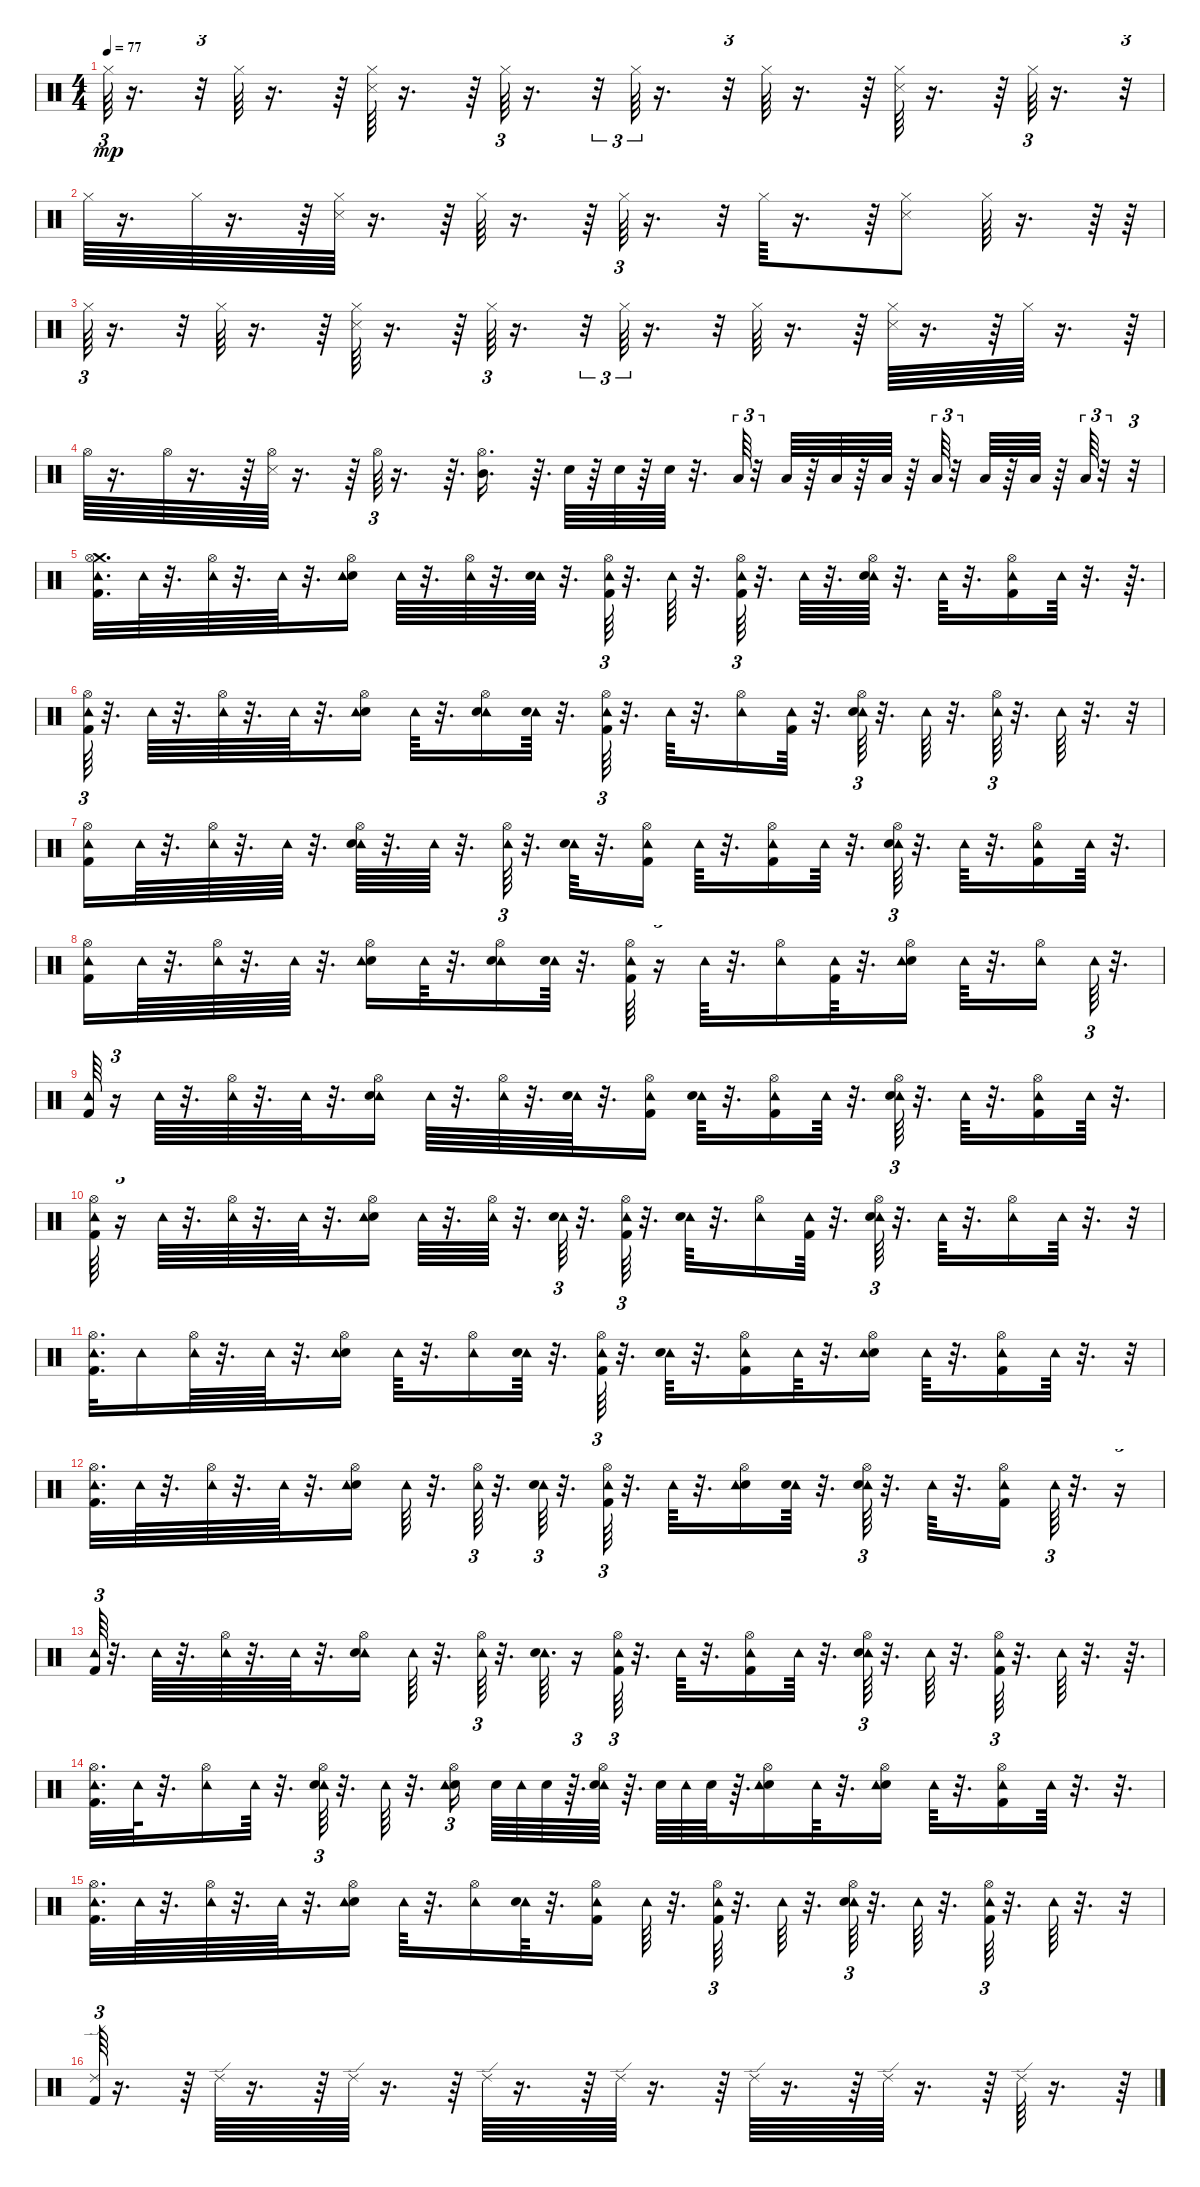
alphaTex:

\track "" {instrument percussion}
\staff {score}
\articulation defaults
\ts (4 4)
\tempo 77
\clef neutral
\ks c "Hi-Hat (closed)".64{tu (3 2) dy mp}
r.16{d} r.32{tu (3 2)} "Hi-Hat (closed)".64 r.16{d} r.64 ("Hi-Hat (closed)" "Snare (side stick) 3").64 r.16{d} r.64 "Hi-Hat (closed)".64{tu (3 2)} r.16{d} r.32{tu (3 2)} "Hi-Hat (closed)".64{tu (3 2)} r.16{d} r.32{tu (3 2)} "Hi-Hat (closed)".64 r.16{d} r.64 ("Hi-Hat (closed)" "Snare (side stick) 3").64 r.16{d} r.64 "Hi-Hat (closed)".64{tu (3 2)} r.16{d} r.32{tu (3 2)} |
"Hi-Hat (closed)".64 r.16{d} "Hi-Hat (closed)".64 r.16{d} r.64 ("Hi-Hat (closed)" "Snare (side stick) 3").64 r.16{d} r.64 "Hi-Hat (closed)".64 r.16{d} r.64 "Hi-Hat (closed)".64{tu (3 2)} r.16{d} r.32{tu (3 2)} "Hi-Hat (closed)".64 r.16{d} r.64 ("Snare (side stick) 3" "Hi-Hat (closed)").8 "Hi-Hat (closed)".64 r.16{d} r.64 r.64 |
"Hi-Hat (closed)".64{tu (3 2)} r.16{d} r.32{tu (3 2)} "Hi-Hat (closed)".64 r.16{d} r.64 ("Hi-Hat (closed)" "Snare (side stick) 3").64 r.16{d} r.64 "Hi-Hat (closed)".64{tu (3 2)} r.16{d} r.32{tu (3 2)} "Hi-Hat (closed)".64{tu (3 2)} r.16{d} r.32{tu (3 2)} "Hi-Hat (closed)".64 r.16{d} r.64 ("Hi-Hat (closed)" "Snare (side stick) 3").64 r.16{d} r.64 "Hi-Hat (closed)".64 r.16{d} r.64 |
"Hi-Hat (open)".64 r.16{d} "Hi-Hat (open)".64 r.16{d} r.64 ("Hi-Hat (open)" "Snare (side stick) 3").64 r.16{d} r.64 "Hi-Hat (open)".64{tu (3 2)} r.16{d} r.64{d} ("Hi-Hat (open)" "Mid Tom (hit)").16{d} r.64{d} "Electric Snare (hit)".64 r.64 "Electric Snare (hit)".64 r.64 "Electric Snare (hit)".64 r.32{d} "Low Floor Tom (hit)".64{tu (3 2)} r.32{tu (3 2)} "Low Floor Tom (hit)".64 r.64 "Low Floor Tom (hit)".64 r.64 "Low Floor Tom (hit)".64 r.64 "Low Floor Tom (hit)".64{tu (3 2)} r.32{tu (3 2)} "Low Floor Tom (hit)".64 r.64 "Low Floor Tom (hit)".64 r.64 "Low Floor Tom (hit)".64{tu (3 2)} r.32{tu (3 2)} r.32{tu (3 2)} |
("Kick (hit) 2" "Crash medium (hit)" "Tambourine (hit)" "Hi-Hat (open)").32{d} "Tambourine (hit)".64 r.32{d} ("Hi-Hat (open)" "Tambourine (hit)").64 r.32{d} "Tambourine (hit)".64 r.32{d} ("Electric Snare (hit)" "Tambourine (hit)" "Hi-Hat (open)").16 "Tambourine (hit)".64 r.32{d} ("Hi-Hat (open)" "Tambourine (hit)").64 r.32{d} ("Tambourine (hit)" "Electric Snare (hit)").64 r.32{d} ("Hi-Hat (open)" "Tambourine (hit)" "Kick (hit) 2").64{tu (3 2)} r.32{d} "Tambourine (hit)".64 r.32{d} ("Hi-Hat (open)" "Tambourine (hit)" "Kick (hit) 2").64{tu (3 2)} r.32{d} "Tambourine (hit)".64 r.32{d} ("Hi-Hat (open)" "Tambourine (hit)" "Electric Snare (hit)").64 r.32{d} "Tambourine (hit)".64 r.32{d} ("Kick (hit) 2" "Tambourine (hit)" "Hi-Hat (open)").16 "Tambourine (hit)".64 r.32{d} r.64{d} |
("Hi-Hat (open)" "Tambourine (hit)" "Kick (hit) 2").64{tu (3 2)} r.32{d} "Tambourine (hit)".64 r.32{d} ("Hi-Hat (open)" "Tambourine (hit)").64 r.32{d} "Tambourine (hit)".64 r.32{d} ("Electric Snare (hit)" "Tambourine (hit)" "Hi-Hat (open)").16 "Tambourine (hit)".64 r.32{d} ("Tambourine (hit)" "Hi-Hat (open)" "Electric Snare (hit)").16 ("Tambourine (hit)" "Electric Snare (hit)").64 r.32{d} ("Hi-Hat (open)" "Tambourine (hit)" "Kick (hit) 2").64{tu (3 2)} r.32{d} "Tambourine (hit)".64 r.32{d} ("Tambourine (hit)" "Hi-Hat (open)").16 ("Tambourine (hit)" "Kick (hit) 2").64 r.32{d} ("Hi-Hat (open)" "Tambourine (hit)" "Electric Snare (hit)").64{tu (3 2)} r.32{d} "Tambourine (hit)".64 r.32{d} ("Hi-Hat (open)" "Tambourine (hit)").64{tu (3 2)} r.32{d} "Tambourine (hit)".64 r.32{d} r.32{tu (3 2)} |
("Kick (hit) 2" "Tambourine (hit)" "Hi-Hat (open)").16 "Tambourine (hit)".64 r.32{d} ("Hi-Hat (open)" "Tambourine (hit)").64 r.32{d} "Tambourine (hit)".64 r.32{d} ("Hi-Hat (open)" "Tambourine (hit)" "Electric Snare (hit)").64 r.32{d} "Tambourine (hit)".64 r.32{d} ("Hi-Hat (open)" "Tambourine (hit)").64{tu (3 2)} r.32{d} ("Tambourine (hit)" "Electric Snare (hit)").64 r.32{d} ("Kick (hit) 2" "Tambourine (hit)" "Hi-Hat (open)").16 "Tambourine (hit)".64 r.32{d} ("Kick (hit) 2" "Tambourine (hit)" "Hi-Hat (open)").16 "Tambourine (hit)".64 r.32{d} ("Hi-Hat (open)" "Tambourine (hit)" "Electric Snare (hit)").64{tu (3 2)} r.32{d} "Tambourine (hit)".64 r.32{d} ("Kick (hit) 2" "Tambourine (hit)" "Hi-Hat (open)").16 "Tambourine (hit)".64 r.32{d} |
("Kick (hit) 2" "Tambourine (hit)" "Hi-Hat (open)").16 "Tambourine (hit)".64 r.32{d} ("Hi-Hat (open)" "Tambourine (hit)").64 r.32{d} "Tambourine (hit)".64 r.32{d} ("Electric Snare (hit)" "Tambourine (hit)" "Hi-Hat (open)").16 "Tambourine (hit)".64 r.32{d} ("Tambourine (hit)" "Hi-Hat (open)" "Electric Snare (hit)").16 ("Tambourine (hit)" "Electric Snare (hit)").64 r.32{d} ("Hi-Hat (open)" "Tambourine (hit)" "Kick (hit) 2").64 r.16{tu (3 2)} "Tambourine (hit)".64 r.32{d} ("Tambourine (hit)" "Hi-Hat (open)").16 ("Tambourine (hit)" "Kick (hit) 2").64 r.32{d} ("Electric Snare (hit)" "Tambourine (hit)" "Hi-Hat (open)").16 "Tambourine (hit)".64 r.32{d} ("Hi-Hat (open)" "Tambourine (hit)").16 "Tambourine (hit)".64{tu (3 2)} r.32{d} |
("Tambourine (hit)" "Kick (hit) 2").64 r.16{tu (3 2)} "Tambourine (hit)".64 r.32{d} ("Hi-Hat (open)" "Tambourine (hit)").64 r.32{d} "Tambourine (hit)".64 r.32{d} ("Hi-Hat (open)" "Tambourine (hit)" "Electric Snare (hit)").16 "Tambourine (hit)".64 r.32{d} ("Hi-Hat (open)" "Tambourine (hit)").64 r.32{d} ("Tambourine (hit)" "Electric Snare (hit)").64 r.32{d} ("Kick (hit) 2" "Tambourine (hit)" "Hi-Hat (open)").16 ("Tambourine (hit)" "Electric Snare (hit)").64 r.32{d} ("Kick (hit) 2" "Tambourine (hit)" "Hi-Hat (open)").16 "Tambourine (hit)".64 r.32{d} ("Hi-Hat (open)" "Tambourine (hit)" "Electric Snare (hit)").64{tu (3 2)} r.32{d} "Tambourine (hit)".64 r.32{d} ("Kick (hit) 2" "Tambourine (hit)" "Hi-Hat (open)").16 "Tambourine (hit)".64 r.32{d} |
("Hi-Hat (open)" "Tambourine (hit)" "Kick (hit) 2").64 r.16{tu (3 2)} "Tambourine (hit)".64 r.32{d} ("Hi-Hat (open)" "Tambourine (hit)").64 r.32{d} "Tambourine (hit)".64 r.32{d} ("Electric Snare (hit)" "Tambourine (hit)" "Hi-Hat (open)").16 "Tambourine (hit)".64 r.32{d} ("Hi-Hat (open)" "Tambourine (hit)").64 r.32{d} ("Tambourine (hit)" "Electric Snare (hit)").64{tu (3 2)} r.32{d} ("Hi-Hat (open)" "Tambourine (hit)" "Kick (hit) 2").64{tu (3 2)} r.32{d} ("Tambourine (hit)" "Electric Snare (hit)").64 r.32{d} ("Tambourine (hit)" "Hi-Hat (open)").16 ("Tambourine (hit)" "Kick (hit) 2").64 r.32{d} ("Hi-Hat (open)" "Tambourine (hit)" "Electric Snare (hit)").64{tu (3 2)} r.32{d} "Tambourine (hit)".64 r.32{d} ("Tambourine (hit)" "Hi-Hat (open)").16 "Tambourine (hit)".64 r.32{d} r.32{tu (3 2)} |
("Kick (hit) 2" "Tambourine (hit)" "Hi-Hat (open)").32{d} "Tambourine (hit)".16 ("Hi-Hat (open)" "Tambourine (hit)").64 r.32{d} "Tambourine (hit)".64 r.32{d} ("Electric Snare (hit)" "Tambourine (hit)" "Hi-Hat (open)").16 "Tambourine (hit)".64 r.32{d} ("Tambourine (hit)" "Hi-Hat (open)").16 ("Tambourine (hit)" "Electric Snare (hit)").64 r.32{d} ("Hi-Hat (open)" "Tambourine (hit)" "Kick (hit) 2").64{tu (3 2)} r.32{d} ("Tambourine (hit)" "Electric Snare (hit)").64 r.32{d} ("Kick (hit) 2" "Tambourine (hit)" "Hi-Hat (open)").16 "Tambourine (hit)".64 r.32{d} ("Electric Snare (hit)" "Tambourine (hit)" "Hi-Hat (open)").16 "Tambourine (hit)".64 r.32{d} ("Kick (hit) 2" "Tambourine (hit)" "Hi-Hat (open)").16 "Tambourine (hit)".64 r.32{d} r.32{tu (3 2)} |
("Kick (hit) 2" "Tambourine (hit)" "Hi-Hat (open)").32{d} "Tambourine (hit)".64 r.32{d} ("Hi-Hat (open)" "Tambourine (hit)").64 r.32{d} "Tambourine (hit)".64 r.32{d} ("Electric Snare (hit)" "Tambourine (hit)" "Hi-Hat (open)").16 "Tambourine (hit)".64 r.32{d} ("Hi-Hat (open)" "Tambourine (hit)").64{tu (3 2)} r.32{d} ("Tambourine (hit)" "Electric Snare (hit)").64{tu (3 2)} r.32{d} ("Hi-Hat (open)" "Tambourine (hit)" "Kick (hit) 2").64{tu (3 2)} r.32{d} "Tambourine (hit)".64 r.32{d} ("Electric Snare (hit)" "Tambourine (hit)" "Hi-Hat (open)").16 ("Tambourine (hit)" "Electric Snare (hit)").64 r.32{d} ("Hi-Hat (open)" "Tambourine (hit)" "Electric Snare (hit)").64{tu (3 2)} r.32{d} "Tambourine (hit)".64 r.32{d} ("Kick (hit) 2" "Tambourine (hit)" "Hi-Hat (open)").16 "Tambourine (hit)".64{tu (3 2)} r.32{d} r.16{tu (3 2)} |
("Tambourine (hit)" "Kick (hit) 2").64{tu (3 2)} r.32{d} "Tambourine (hit)".64 r.32{d} ("Hi-Hat (open)" "Tambourine (hit)").64 r.32{d} "Tambourine (hit)".64 r.32{d} ("Hi-Hat (open)" "Tambourine (hit)" "Electric Snare (hit)").16 "Tambourine (hit)".64 r.32{d} ("Hi-Hat (open)" "Tambourine (hit)").64{tu (3 2)} r.32{d} ("Tambourine (hit)" "Electric Snare (hit)").64{d} r.16{tu (3 2)} ("Hi-Hat (open)" "Tambourine (hit)" "Kick (hit) 2").64{tu (3 2)} r.32{d} "Tambourine (hit)".64 r.32{d} ("Kick (hit) 2" "Tambourine (hit)" "Hi-Hat (open)").16 "Tambourine (hit)".64 r.32{d} ("Hi-Hat (open)" "Tambourine (hit)" "Electric Snare (hit)").64{tu (3 2)} r.32{d} "Tambourine (hit)".64 r.32{d} ("Hi-Hat (open)" "Tambourine (hit)" "Kick (hit) 2").64{tu (3 2)} r.32{d} "Tambourine (hit)".64 r.32{d} r.64{d} |
("Kick (hit) 2" "Tambourine (hit)" "Hi-Hat (open)").32{d} "Tambourine (hit)".64 r.32{d} ("Tambourine (hit)" "Hi-Hat (open)").16 "Tambourine (hit)".64 r.32{d} ("Hi-Hat (open)" "Tambourine (hit)" "Electric Snare (hit)").64{tu (3 2)} r.32{d} "Tambourine (hit)".64 r.32{d} ("Electric Snare (hit)" "Tambourine (hit)" "Hi-Hat (open)").16{tu (3 2)} "Electric Snare (hit)".64 "Tambourine (hit)".64 "Electric Snare (hit)".64 r.64{d} ("Hi-Hat (open)" "Tambourine (hit)" "Electric Snare (hit)").64 r.64{d} "Electric Snare (hit)".64 "Tambourine (hit)".64 "Electric Snare (hit)".64 r.64{d} ("Electric Snare (hit)" "Tambourine (hit)" "Hi-Hat (open)").16 "Tambourine (hit)".64 r.32{d} ("Electric Snare (hit)" "Tambourine (hit)" "Hi-Hat (open)").16 "Tambourine (hit)".64 r.32{d} ("Kick (hit) 2" "Tambourine (hit)" "Hi-Hat (open)").16 "Tambourine (hit)".64 r.32{d} r.32{d} |
("Kick (hit) 2" "Tambourine (hit)" "Hi-Hat (open)").32{d} "Tambourine (hit)".64 r.32{d} ("Hi-Hat (open)" "Tambourine (hit)").64 r.32{d} "Tambourine (hit)".64 r.32{d} ("Electric Snare (hit)" "Tambourine (hit)" "Hi-Hat (open)").16 "Tambourine (hit)".64 r.32{d} ("Tambourine (hit)" "Hi-Hat (open)").16 ("Tambourine (hit)" "Electric Snare (hit)").64 r.32{d} ("Kick (hit) 2" "Tambourine (hit)" "Hi-Hat (open)").16 "Tambourine (hit)".64 r.32{d} ("Hi-Hat (open)" "Tambourine (hit)" "Kick (hit) 2").64{tu (3 2)} r.32{d} "Tambourine (hit)".64 r.32{d} ("Hi-Hat (open)" "Tambourine (hit)" "Electric Snare (hit)").64{tu (3 2)} r.32{d} "Tambourine (hit)".64 r.32{d} ("Hi-Hat (open)" "Tambourine (hit)" "Kick (hit) 2").64{tu (3 2)} r.32{d} "Tambourine (hit)".64 r.32{d} r.32 |
("Ride (edge) 2" "Kick (hit) 2").64{tu (3 2)} r.16{d} r.64 "Ride (edge) 2".64 r.16{d} r.64 "Ride (edge) 2".64 r.16{d} r.64 "Ride (edge) 2".64 r.16{d} r.64 "Ride (edge) 2".64 r.16{d} r.64 "Ride (edge) 2".64 r.16{d} r.64 "Ride (edge) 2".64 r.16{d} r.64 "Ride (edge) 2".64 r.16{d} r.64
